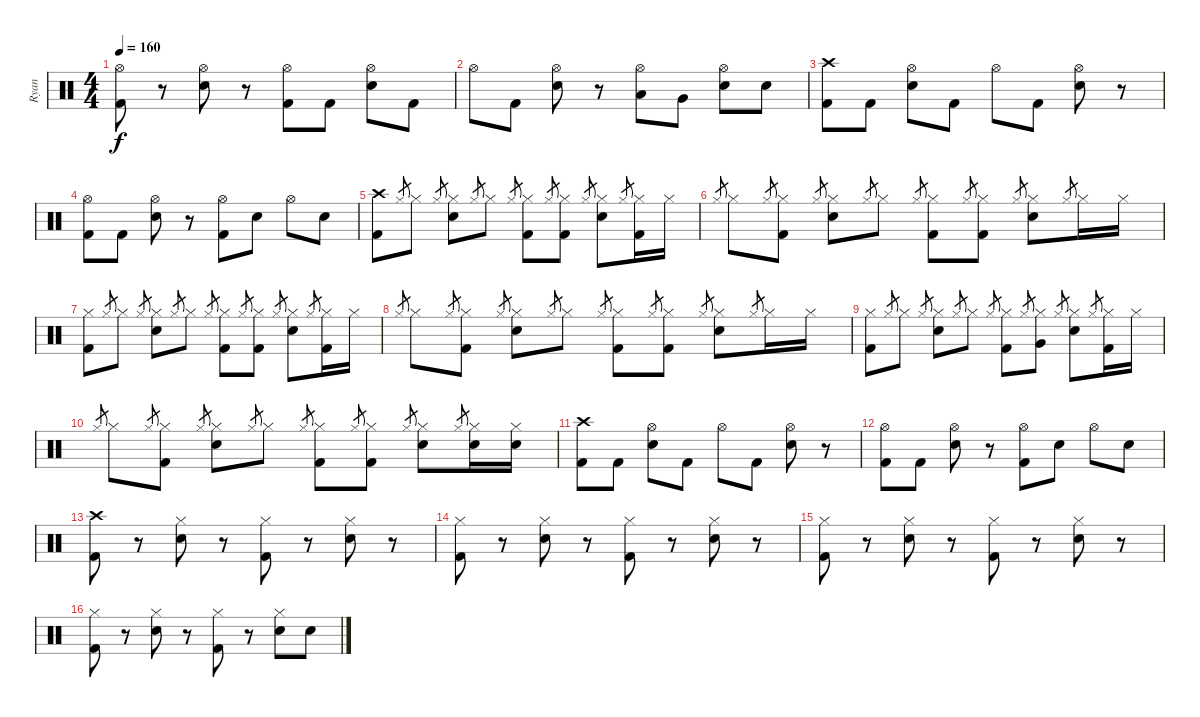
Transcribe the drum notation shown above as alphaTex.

\track ("Ryan" "Ryan") {instrument percussion}
\staff {score}
\articulation defaults
\ts (4 4)
\tempo 160
\clef neutral
\ks c
("Hi-Hat (open)" "Kick (hit) 2").8{dy f} r.8 ("Hi-Hat (open)" "Snare (hit) 2").8 r.8 ("Hi-Hat (open)" "Kick (hit) 2").8 "Kick (hit) 2".8 ("Hi-Hat (open)" "Snare (hit) 2").8 "Kick (hit) 2".8 |
"Hi-Hat (open)".8 "Kick (hit) 2".8 ("Hi-Hat (open)" "Snare (hit) 2").8 r.8 ("Hi-Hat (open)" "Low Tom (hit)").8 "Very Low Tom (hit)".8 ("Hi-Hat (open)" "Snare (hit) 2").8 "Snare (hit) 2".8 |
("Crash high (hit)" "Kick (hit) 2").8 "Kick (hit) 2".8 ("Hi-Hat (open)" "Snare (hit) 2").8 "Kick (hit) 2".8 "Hi-Hat (open)".8 "Kick (hit) 2".8 ("Hi-Hat (open)" "Snare (hit) 2").8 r.8 |
("Hi-Hat (open)" "Kick (hit) 2").8 "Kick (hit) 2".8 ("Hi-Hat (open)" "Snare (hit) 2").8 r.8 ("Hi-Hat (open)" "Kick (hit) 2").8 "Snare (hit) 2".8 "Hi-Hat (open)".8 "Snare (hit) 2".8 |
("Crash high (hit)" "Kick (hit) 2").8 "Hi-Hat (closed)".8{gr} "Hi-Hat (closed)".8 "Hi-Hat (closed)".8{gr} ("Hi-Hat (closed)" "Snare (hit) 2").8 "Hi-Hat (closed)".8{gr} "Hi-Hat (closed)".8 "Hi-Hat (closed)".8{gr} ("Hi-Hat (closed)" "Kick (hit) 2").8 "Hi-Hat (closed)".8{gr} ("Hi-Hat (closed)" "Kick (hit) 2").8 "Hi-Hat (closed)".8{gr} ("Hi-Hat (closed)" "Snare (hit) 2").8 "Hi-Hat (closed)".8{gr} ("Hi-Hat (closed)" "Kick (hit) 2").16 "Hi-Hat (closed)".16 |
"Hi-Hat (closed)".8{gr} "Hi-Hat (closed)".8 "Hi-Hat (closed)".8{gr} ("Hi-Hat (closed)" "Kick (hit) 2").8 "Hi-Hat (closed)".8{gr} ("Hi-Hat (closed)" "Snare (hit) 2").8 "Hi-Hat (closed)".8{gr} "Hi-Hat (closed)".8 "Hi-Hat (closed)".8{gr} ("Hi-Hat (closed)" "Kick (hit) 2").8 "Hi-Hat (closed)".8{gr} ("Hi-Hat (closed)" "Kick (hit) 2").8 "Hi-Hat (closed)".8{gr} ("Hi-Hat (closed)" "Snare (hit) 2").8 "Hi-Hat (closed)".8{gr} "Hi-Hat (closed)".16 "Hi-Hat (closed)".16 |
("Hi-Hat (closed)" "Kick (hit) 2").8 "Hi-Hat (closed)".8{gr} "Hi-Hat (closed)".8 "Hi-Hat (closed)".8{gr} ("Hi-Hat (closed)" "Snare (hit) 2").8 "Hi-Hat (closed)".8{gr} "Hi-Hat (closed)".8 "Hi-Hat (closed)".8{gr} ("Hi-Hat (closed)" "Kick (hit) 2").8 "Hi-Hat (closed)".8{gr} ("Hi-Hat (closed)" "Kick (hit) 2").8 "Hi-Hat (closed)".8{gr} ("Hi-Hat (closed)" "Snare (hit) 2").8 "Hi-Hat (closed)".8{gr} ("Hi-Hat (closed)" "Kick (hit) 2").16 "Hi-Hat (closed)".16 |
"Hi-Hat (closed)".8{gr} "Hi-Hat (closed)".8 "Hi-Hat (closed)".8{gr} ("Hi-Hat (closed)" "Kick (hit) 2").8 "Hi-Hat (closed)".8{gr} ("Hi-Hat (closed)" "Snare (hit) 2").8 "Hi-Hat (closed)".8{gr} "Hi-Hat (closed)".8 "Hi-Hat (closed)".8{gr} ("Hi-Hat (closed)" "Kick (hit) 2").8 "Hi-Hat (closed)".8{gr} ("Hi-Hat (closed)" "Kick (hit) 2").8 "Hi-Hat (closed)".8{gr} ("Hi-Hat (closed)" "Snare (hit) 2").8 "Hi-Hat (closed)".8{gr} "Hi-Hat (closed)".16 "Hi-Hat (closed)".16 |
("Hi-Hat (closed)" "Kick (hit) 2").8 "Hi-Hat (closed)".8{gr} "Hi-Hat (closed)".8 "Hi-Hat (closed)".8{gr} ("Hi-Hat (closed)" "Snare (hit) 2").8 "Hi-Hat (closed)".8{gr} "Hi-Hat (closed)".8 "Hi-Hat (closed)".8{gr} ("Hi-Hat (closed)" "Kick (hit) 2").8 "Hi-Hat (closed)".8{gr} ("Hi-Hat (closed)" "Very Low Tom (hit)").8 "Hi-Hat (closed)".8{gr} ("Hi-Hat (closed)" "Snare (hit) 2").8 "Hi-Hat (closed)".8{gr} ("Hi-Hat (closed)" "Kick (hit) 2").16 "Hi-Hat (closed)".16 |
"Hi-Hat (closed)".8{gr} "Hi-Hat (closed)".8 "Hi-Hat (closed)".8{gr} ("Hi-Hat (closed)" "Kick (hit) 2").8 "Hi-Hat (closed)".8{gr} ("Hi-Hat (closed)" "Snare (hit) 2").8 "Hi-Hat (closed)".8{gr} "Hi-Hat (closed)".8 "Hi-Hat (closed)".8{gr} ("Hi-Hat (closed)" "Kick (hit) 2").8 "Hi-Hat (closed)".8{gr} ("Hi-Hat (closed)" "Kick (hit) 2").8 "Hi-Hat (closed)".8{gr} ("Hi-Hat (closed)" "Snare (hit) 2").8 "Hi-Hat (closed)".8{gr} ("Hi-Hat (closed)" "Snare (hit) 2").16 ("Hi-Hat (closed)" "Snare (hit) 2").16 |
("Crash high (hit)" "Kick (hit) 2").8 "Kick (hit) 2".8 ("Hi-Hat (open)" "Snare (hit) 2").8 "Kick (hit) 2".8 "Hi-Hat (open)".8 "Kick (hit) 2".8 ("Hi-Hat (open)" "Snare (hit) 2").8 r.8 |
("Hi-Hat (open)" "Kick (hit) 2").8 "Kick (hit) 2".8 ("Hi-Hat (open)" "Snare (hit) 2").8 r.8 ("Hi-Hat (open)" "Kick (hit) 2").8 "Snare (hit) 2".8 "Hi-Hat (open)".8 "Snare (hit) 2".8 |
("Crash high (hit)" "Kick (hit) 2").8 r.8 ("Hi-Hat (closed)" "Snare (hit) 2").8 r.8 ("Hi-Hat (closed)" "Kick (hit) 2").8 r.8 ("Hi-Hat (closed)" "Snare (hit) 2").8 r.8 |
("Hi-Hat (closed)" "Kick (hit) 2").8 r.8 ("Hi-Hat (closed)" "Snare (hit) 2").8 r.8 ("Hi-Hat (closed)" "Kick (hit) 2").8 r.8 ("Hi-Hat (closed)" "Snare (hit) 2").8 r.8 |
("Hi-Hat (closed)" "Kick (hit) 2").8 r.8 ("Hi-Hat (closed)" "Snare (hit) 2").8 r.8 ("Hi-Hat (closed)" "Kick (hit) 2").8 r.8 ("Hi-Hat (closed)" "Snare (hit) 2").8 r.8 |
("Hi-Hat (closed)" "Kick (hit) 2").8 r.8 ("Hi-Hat (closed)" "Snare (hit) 2").8 r.8 ("Hi-Hat (closed)" "Kick (hit) 2").8 r.8 ("Hi-Hat (closed)" "Snare (hit) 2").8 "Snare (hit) 2".8
